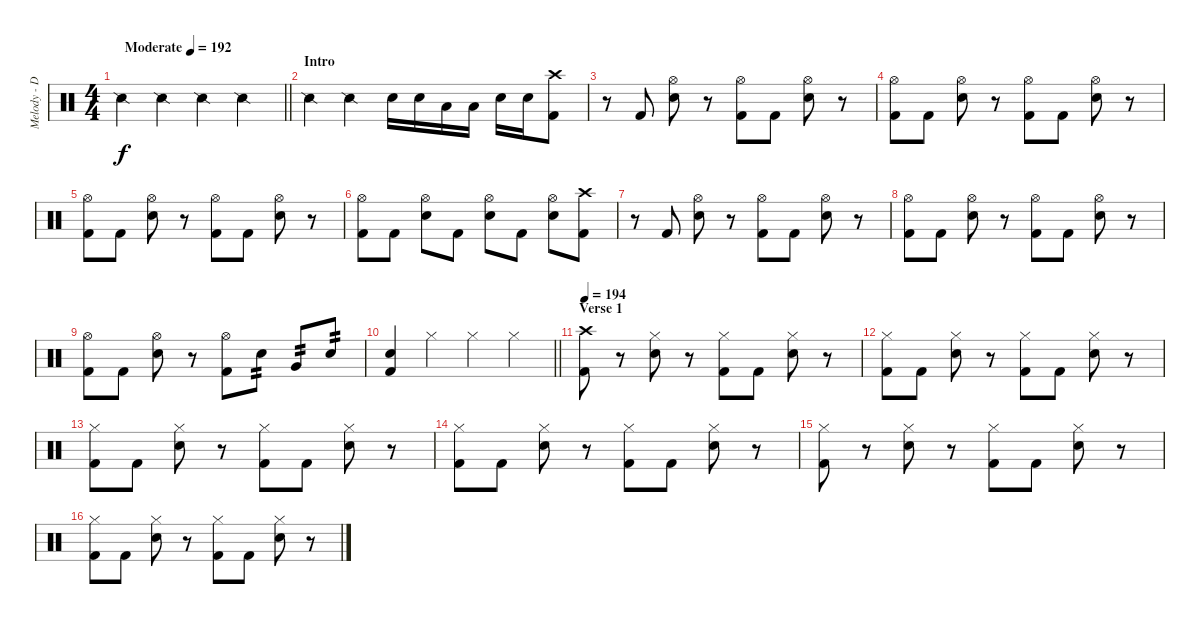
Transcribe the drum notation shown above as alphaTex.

\track ("Melody - Drums" "Melody - D") {instrument percussion}
\staff {score}
\articulation defaults
\ts (4 4)
\tempo (192 "Moderate")
\clef neutral
\barLineRight lightlight
\ks c "Snare (side stick) 2".4{dy f} "Snare (side stick) 2".4 "Snare (side stick) 2".4 "Snare (side stick) 2".4
|
\section ("" "Intro")
"Snare (side stick) 2".4 "Snare (side stick) 2".4 "Electric Snare (hit)".16 "Electric Snare (hit)".16 "Low Tom (hit)".16 "Low Tom (hit)".16 "Electric Snare (hit)".16 "Electric Snare (hit)".16 ("Crash high (hit)" "Kick (hit) 2").8 |
r.8 "Kick (hit) 2".8 ("Hi-Hat (open)" "Electric Snare (hit)").8 r.8 ("Hi-Hat (open)" "Kick (hit) 2").8 "Kick (hit) 2".8 ("Hi-Hat (open)" "Electric Snare (hit)").8 r.8 |
("Hi-Hat (open)" "Kick (hit) 2").8 "Kick (hit) 2".8 ("Hi-Hat (open)" "Electric Snare (hit)").8 r.8 ("Hi-Hat (open)" "Kick (hit) 2").8 "Kick (hit) 2".8 ("Hi-Hat (open)" "Electric Snare (hit)").8 r.8 |
("Hi-Hat (open)" "Kick (hit) 2").8 "Kick (hit) 2".8 ("Hi-Hat (open)" "Electric Snare (hit)").8 r.8 ("Hi-Hat (open)" "Kick (hit) 2").8 "Kick (hit) 2".8 ("Hi-Hat (open)" "Electric Snare (hit)").8 r.8 |
("Hi-Hat (open)" "Kick (hit) 2").8 "Kick (hit) 2".8 ("Hi-Hat (open)" "Electric Snare (hit)").8 "Kick (hit) 2".8 ("Hi-Hat (open)" "Electric Snare (hit)").8 "Kick (hit) 2".8 ("Hi-Hat (open)" "Electric Snare (hit)").8 ("Crash high (hit)" "Kick (hit) 2").8 |
r.8 "Kick (hit) 2".8 ("Hi-Hat (open)" "Electric Snare (hit)").8 r.8 ("Hi-Hat (open)" "Kick (hit) 2").8 "Kick (hit) 2".8 ("Hi-Hat (open)" "Electric Snare (hit)").8 r.8 |
("Hi-Hat (open)" "Kick (hit) 2").8 "Kick (hit) 2".8 ("Hi-Hat (open)" "Electric Snare (hit)").8 r.8 ("Hi-Hat (open)" "Kick (hit) 2").8 "Kick (hit) 2".8 ("Hi-Hat (open)" "Electric Snare (hit)").8 r.8 |
("Hi-Hat (open)" "Kick (hit) 2").8 "Kick (hit) 2".8 ("Hi-Hat (open)" "Electric Snare (hit)").8 r.8 ("Hi-Hat (open)" "Kick (hit) 2").8 "Electric Snare (hit)".8{tp 2} "Very Low Tom (hit)".8{tp 2} "Electric Snare (hit)".8{tp 2} |
\barLineRight lightlight
("Electric Snare (hit)" "Kick (hit) 2").4 "Hi-Hat (closed)".4 "Hi-Hat (closed)".4 "Hi-Hat (closed)".4 |
\section ("" "Verse 1")
\tempo 194
("Crash high (hit)" "Kick (hit) 2").8 r.8 ("Hi-Hat (closed)" "Electric Snare (hit)").8 r.8 ("Hi-Hat (closed)" "Kick (hit) 2").8 "Kick (hit) 2".8 ("Hi-Hat (closed)" "Electric Snare (hit)").8 r.8 |
("Hi-Hat (closed)" "Kick (hit) 2").8 "Kick (hit) 2".8 ("Hi-Hat (closed)" "Electric Snare (hit)").8 r.8 ("Hi-Hat (closed)" "Kick (hit) 2").8 "Kick (hit) 2".8 ("Hi-Hat (closed)" "Electric Snare (hit)").8 r.8 |
("Hi-Hat (closed)" "Kick (hit) 2").8 "Kick (hit) 2".8 ("Hi-Hat (closed)" "Electric Snare (hit)").8 r.8 ("Hi-Hat (closed)" "Kick (hit) 2").8 "Kick (hit) 2".8 ("Hi-Hat (closed)" "Electric Snare (hit)").8 r.8 |
("Hi-Hat (closed)" "Kick (hit) 2").8 "Kick (hit) 2".8 ("Hi-Hat (closed)" "Electric Snare (hit)").8 r.8 ("Hi-Hat (closed)" "Kick (hit) 2").8 "Kick (hit) 2".8 ("Hi-Hat (closed)" "Electric Snare (hit)").8 r.8 |
("Hi-Hat (closed)" "Kick (hit) 2").8 r.8 ("Hi-Hat (closed)" "Electric Snare (hit)").8 r.8 ("Hi-Hat (closed)" "Kick (hit) 2").8 "Kick (hit) 2".8 ("Hi-Hat (closed)" "Electric Snare (hit)").8 r.8 |
("Hi-Hat (closed)" "Kick (hit) 2").8 "Kick (hit) 2".8 ("Hi-Hat (closed)" "Electric Snare (hit)").8 r.8 ("Hi-Hat (closed)" "Kick (hit) 2").8 "Kick (hit) 2".8 ("Hi-Hat (closed)" "Electric Snare (hit)").8 r.8
